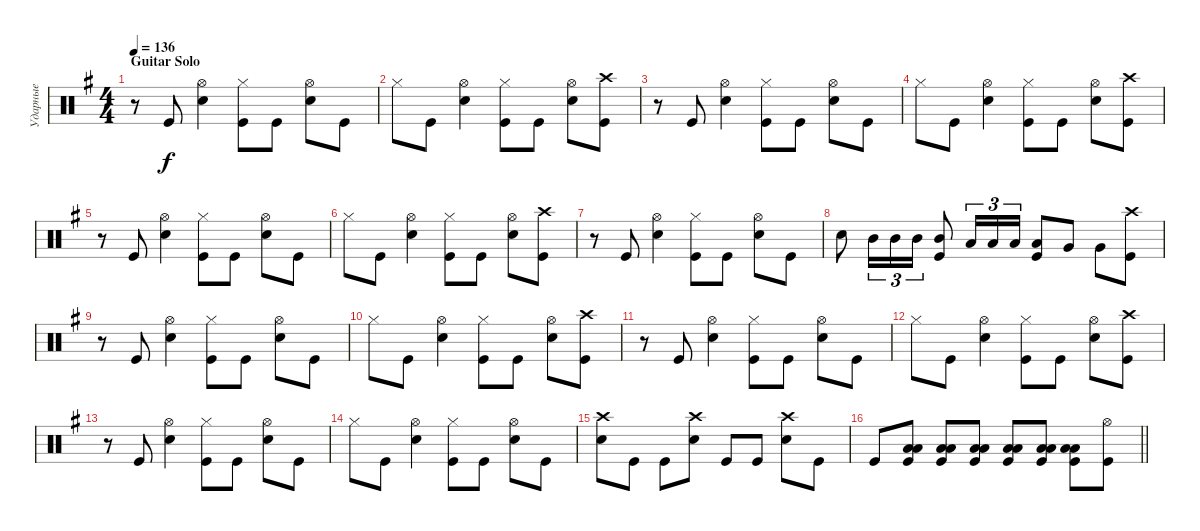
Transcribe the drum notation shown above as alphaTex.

\track ("Ударные" "Ударные") {instrument percussion}
\staff {score}
\articulation defaults
\ts (4 4)
\section ("" "Guitar Solo")
\tempo 136
\clef neutral
\ks eminor
r.8{dy f} "Kick (hit)".8 ("Snare (hit) 2" "Hi-Hat (open)").4 ("Kick (hit)" "Hi-Hat (closed)").8 "Kick (hit)".8 ("Snare (hit) 2" "Hi-Hat (open)").8 "Kick (hit)".8 |
"Hi-Hat (closed)".8 "Kick (hit)".8 ("Snare (hit) 2" "Hi-Hat (open)").4 ("Kick (hit)" "Hi-Hat (closed)").8 "Kick (hit)".8 ("Snare (hit) 2" "Hi-Hat (open)").8 ("Kick (hit)" "Crash high (hit)").8 |
r.8 "Kick (hit)".8 ("Snare (hit) 2" "Hi-Hat (open)").4 ("Kick (hit)" "Hi-Hat (closed)").8 "Kick (hit)".8 ("Snare (hit) 2" "Hi-Hat (open)").8 "Kick (hit)".8 |
"Hi-Hat (closed)".8 "Kick (hit)".8 ("Snare (hit) 2" "Hi-Hat (open)").4 ("Kick (hit)" "Hi-Hat (closed)").8 "Kick (hit)".8 ("Snare (hit) 2" "Hi-Hat (open)").8 ("Kick (hit)" "Crash high (hit)").8 |
r.8 "Kick (hit)".8 ("Snare (hit) 2" "Hi-Hat (open)").4 ("Kick (hit)" "Hi-Hat (closed)").8 "Kick (hit)".8 ("Snare (hit) 2" "Hi-Hat (open)").8 "Kick (hit)".8 |
"Hi-Hat (closed)".8 "Kick (hit)".8 ("Snare (hit) 2" "Hi-Hat (open)").4 ("Kick (hit)" "Hi-Hat (closed)").8 "Kick (hit)".8 ("Snare (hit) 2" "Hi-Hat (open)").8 ("Kick (hit)" "Crash high (hit)").8 |
r.8 "Kick (hit)".8 ("Snare (hit) 2" "Hi-Hat (open)").4 ("Kick (hit)" "Hi-Hat (closed)").8 "Kick (hit)".8 ("Snare (hit) 2" "Hi-Hat (open)").8 "Kick (hit)".8 |
"Snare (hit) 2".8 "Mid Tom (hit)".16{tu (3 2)} "Mid Tom (hit)".16{tu (3 2)} "Mid Tom (hit)".16{tu (3 2)} ("Mid Tom (hit)" "Kick (hit)").8 "Low Tom (hit)".16{tu (3 2)} "Low Tom (hit)".16{tu (3 2)} "Low Tom (hit)".16{tu (3 2)} ("Kick (hit)" "Low Tom (hit)").8 "Very Low Tom (hit)".8 "Very Low Tom (hit)".8 ("Kick (hit)" "Crash high (hit)").8 |
r.8 "Kick (hit)".8 ("Snare (hit) 2" "Hi-Hat (open)").4 ("Kick (hit)" "Hi-Hat (closed)").8 "Kick (hit)".8 ("Snare (hit) 2" "Hi-Hat (open)").8 "Kick (hit)".8 |
"Hi-Hat (closed)".8 "Kick (hit)".8 ("Snare (hit) 2" "Hi-Hat (open)").4 ("Kick (hit)" "Hi-Hat (closed)").8 "Kick (hit)".8 ("Snare (hit) 2" "Hi-Hat (open)").8 ("Kick (hit)" "Crash high (hit)").8 |
r.8 "Kick (hit)".8 ("Snare (hit) 2" "Hi-Hat (open)").4 ("Kick (hit)" "Hi-Hat (closed)").8 "Kick (hit)".8 ("Snare (hit) 2" "Hi-Hat (open)").8 "Kick (hit)".8 |
"Hi-Hat (closed)".8 "Kick (hit)".8 ("Snare (hit) 2" "Hi-Hat (open)").4 ("Kick (hit)" "Hi-Hat (closed)").8 "Kick (hit)".8 ("Snare (hit) 2" "Hi-Hat (open)").8 ("Kick (hit)" "Crash high (hit)").8 |
r.8 "Kick (hit)".8 ("Snare (hit) 2" "Hi-Hat (open)").4 ("Kick (hit)" "Hi-Hat (closed)").8 "Kick (hit)".8 ("Snare (hit) 2" "Hi-Hat (open)").8 "Kick (hit)".8 |
"Hi-Hat (closed)".8 "Kick (hit)".8 ("Snare (hit) 2" "Hi-Hat (open)").4 ("Kick (hit)" "Hi-Hat (closed)").8 "Kick (hit)".8 ("Snare (hit) 2" "Hi-Hat (open)").8 "Kick (hit)".8 |
("Snare (hit) 2" "Crash high (hit)").8 "Kick (hit)".8 "Kick (hit)".8 ("Snare (hit) 2" "Crash high (hit)").8 "Kick (hit)".8 "Kick (hit)".8 ("Snare (hit) 2" "Crash high (hit)").8 "Kick (hit)".8 |
\barLineRight lightlight "Kick (hit)".8
("Kick (hit)" "Low Tom (hit)" "Low Tom (hit)").8{bd 120} ("Kick (hit)" "Low Tom (hit)" "Low Tom (hit)").8{bd 120} ("Kick (hit)" "Low Tom (hit)" "Low Tom (hit)").8{bd 120} ("Kick (hit)" "Low Tom (hit)" "Low Tom (hit)").8{bd 120} ("Kick (hit)" "Low Tom (hit)" "Low Tom (hit)").8{bd 120} ("Kick (hit)" "Low Tom (hit)" "Low Tom (hit)").8{bd 120} ("Kick (hit)" "Hi-Hat (open)").8
